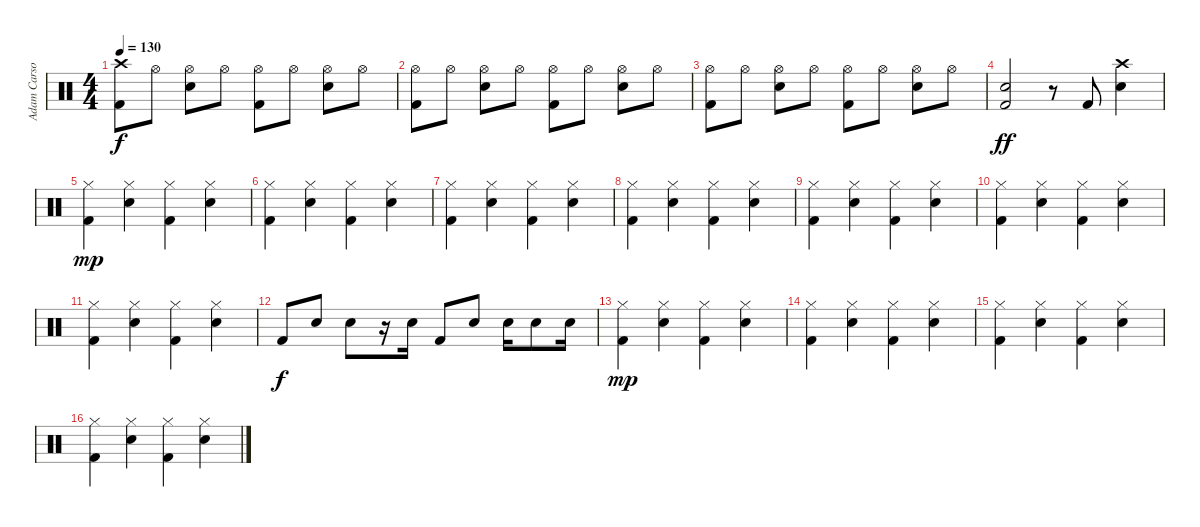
\track ("Adam Carson" "Adam Carso") {instrument percussion}
\staff {score}
\articulation defaults
\ts (4 4)
\tempo 130
\clef neutral
\ks c
("Crash high (hit)" "Kick (hit) 2").8{dy f} "Hi-Hat (open)".8 ("Hi-Hat (open)" "Electric Snare (hit)").8 "Hi-Hat (open)".8 ("Hi-Hat (open)" "Kick (hit) 2").8 "Hi-Hat (open)".8 ("Hi-Hat (open)" "Electric Snare (hit)").8 "Hi-Hat (open)".8 |
("Hi-Hat (open)" "Kick (hit) 2").8 "Hi-Hat (open)".8 ("Hi-Hat (open)" "Electric Snare (hit)").8 "Hi-Hat (open)".8 ("Hi-Hat (open)" "Kick (hit) 2").8 "Hi-Hat (open)".8 ("Hi-Hat (open)" "Electric Snare (hit)").8 "Hi-Hat (open)".8 |
("Hi-Hat (open)" "Kick (hit) 2").8 "Hi-Hat (open)".8 ("Hi-Hat (open)" "Electric Snare (hit)").8 "Hi-Hat (open)".8 ("Hi-Hat (open)" "Kick (hit) 2").8 "Hi-Hat (open)".8 ("Hi-Hat (open)" "Electric Snare (hit)").8 "Hi-Hat (open)".8 |
("Electric Snare (hit)" "Kick (hit) 2").2{dy ff} r.8 "Kick (hit) 2".8 ("Crash high (hit)" "Electric Snare (hit)").4 |
("Hi-Hat (closed)" "Kick (hit) 2").4{dy mp} ("Hi-Hat (closed)" "Electric Snare (hit)").4 ("Hi-Hat (closed)" "Kick (hit) 2").4 ("Hi-Hat (closed)" "Electric Snare (hit)").4 |
("Hi-Hat (closed)" "Kick (hit) 2").4 ("Hi-Hat (closed)" "Electric Snare (hit)").4 ("Hi-Hat (closed)" "Kick (hit) 2").4 ("Hi-Hat (closed)" "Electric Snare (hit)").4 |
("Hi-Hat (closed)" "Kick (hit) 2").4 ("Hi-Hat (closed)" "Electric Snare (hit)").4 ("Hi-Hat (closed)" "Kick (hit) 2").4 ("Hi-Hat (closed)" "Electric Snare (hit)").4 |
("Hi-Hat (closed)" "Kick (hit) 2").4 ("Hi-Hat (closed)" "Electric Snare (hit)").4 ("Hi-Hat (closed)" "Kick (hit) 2").4 ("Hi-Hat (closed)" "Electric Snare (hit)").4 |
("Hi-Hat (closed)" "Kick (hit) 2").4 ("Hi-Hat (closed)" "Electric Snare (hit)").4 ("Hi-Hat (closed)" "Kick (hit) 2").4 ("Hi-Hat (closed)" "Electric Snare (hit)").4 |
("Hi-Hat (closed)" "Kick (hit) 2").4 ("Hi-Hat (closed)" "Electric Snare (hit)").4 ("Hi-Hat (closed)" "Kick (hit) 2").4 ("Hi-Hat (closed)" "Electric Snare (hit)").4 |
("Hi-Hat (closed)" "Kick (hit) 2").4 ("Hi-Hat (closed)" "Electric Snare (hit)").4 ("Hi-Hat (closed)" "Kick (hit) 2").4 ("Hi-Hat (closed)" "Electric Snare (hit)").4 |
"Kick (hit) 2".8{dy f} "Electric Snare (hit)".8 "Electric Snare (hit)".8 r.16 "Electric Snare (hit)".16 "Kick (hit) 2".8 "Electric Snare (hit)".8 "Electric Snare (hit)".16 "Electric Snare (hit)".8 "Electric Snare (hit)".16 |
("Hi-Hat (closed)" "Kick (hit) 2").4{dy mp} ("Hi-Hat (closed)" "Electric Snare (hit)").4 ("Hi-Hat (closed)" "Kick (hit) 2").4 ("Hi-Hat (closed)" "Electric Snare (hit)").4 |
("Hi-Hat (closed)" "Kick (hit) 2").4 ("Hi-Hat (closed)" "Electric Snare (hit)").4 ("Hi-Hat (closed)" "Kick (hit) 2").4 ("Hi-Hat (closed)" "Electric Snare (hit)").4 |
("Hi-Hat (closed)" "Kick (hit) 2").4 ("Hi-Hat (closed)" "Electric Snare (hit)").4 ("Hi-Hat (closed)" "Kick (hit) 2").4 ("Hi-Hat (closed)" "Electric Snare (hit)").4 |
("Hi-Hat (closed)" "Kick (hit) 2").4 ("Hi-Hat (closed)" "Electric Snare (hit)").4 ("Hi-Hat (closed)" "Kick (hit) 2").4 ("Hi-Hat (closed)" "Electric Snare (hit)").4
